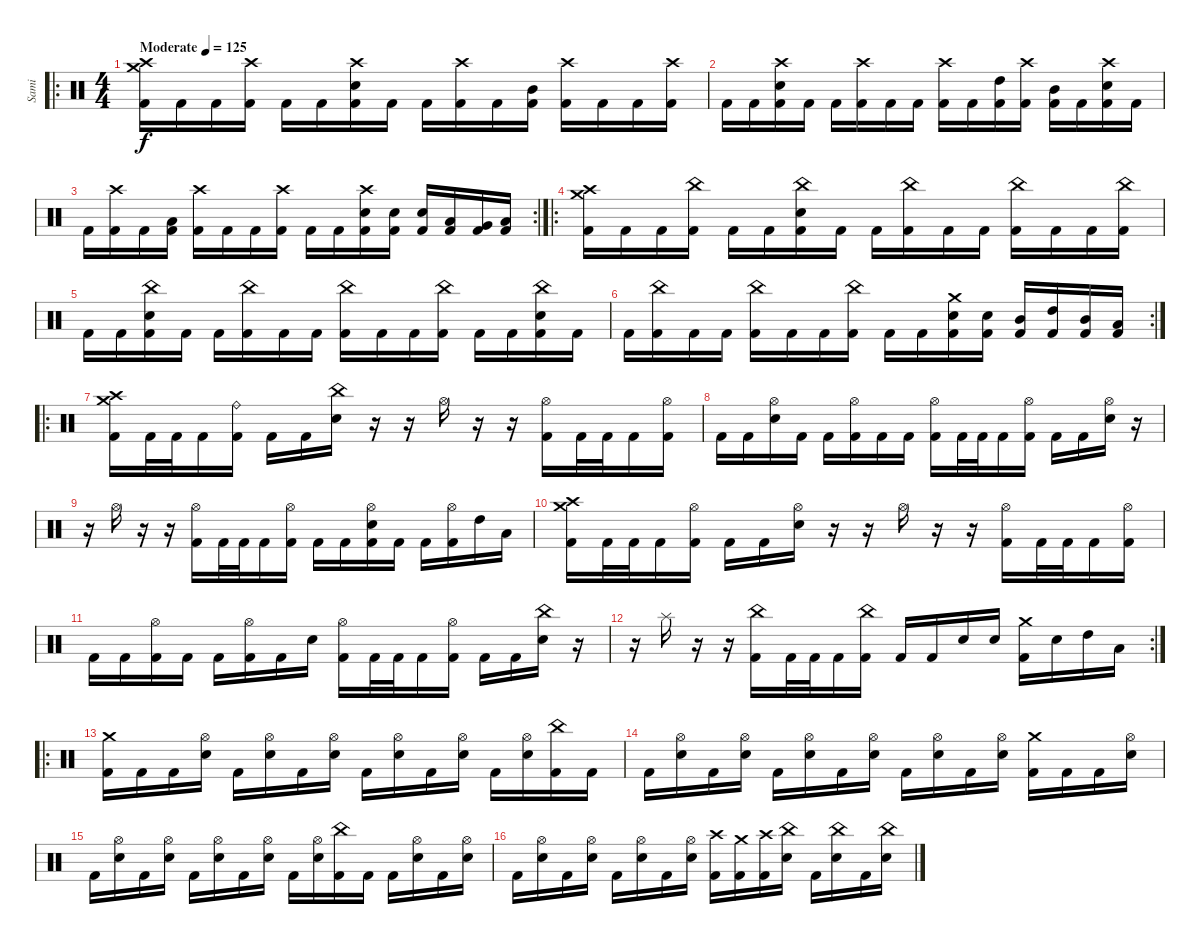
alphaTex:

\track ("Sami" "Sami") {instrument percussion}
\staff {score}
\articulation defaults
\ro
\ts (4 4)
\tempo (125 "Moderate")
\clef neutral
\ks c
("Crash high (hit)" "Crash medium (hit)" "Kick (hit) 2").16{dy f} "Kick (hit) 2".16 "Kick (hit) 2".16 ("Crash high (hit)" "Kick (hit) 2").16 "Kick (hit) 2".16 "Kick (hit) 2".16 ("Crash high (hit)" "Snare (hit) 2" "Kick (hit) 2").16 "Kick (hit) 2".16 "Kick (hit) 2".16 ("Crash high (hit)" "Kick (hit) 2").16 "Kick (hit) 2".16 ("Mid Tom (hit)" "Kick (hit) 2").16 ("Crash high (hit)" "Kick (hit) 2").16 "Kick (hit) 2".16 "Kick (hit) 2".16 ("Crash high (hit)" "Kick (hit) 2").16 |
"Kick (hit) 2".16 "Kick (hit) 2".16 ("Crash high (hit)" "Snare (hit) 2" "Kick (hit) 2").16 "Kick (hit) 2".16 "Kick (hit) 2".16 ("Crash high (hit)" "Kick (hit) 2").16 "Kick (hit) 2".16 "Kick (hit) 2".16 ("Crash high (hit)" "Kick (hit) 2").16 "Kick (hit) 2".16 ("High Tom (hit)" "Kick (hit) 2").16 ("Crash high (hit)" "Kick (hit) 2").16 ("Mid Tom (hit)" "Kick (hit) 2").16 "Kick (hit) 2".16 ("Crash high (hit)" "Snare (hit) 2" "Kick (hit) 2").16 "Kick (hit) 2".16 |
\rc 2 "Kick (hit) 2".16
("Crash high (hit)" "Kick (hit) 2").16 "Kick (hit) 2".16 ("Low Tom (hit)" "Kick (hit) 2").16 ("Crash high (hit)" "Kick (hit) 2").16 "Kick (hit) 2".16 "Kick (hit) 2".16 ("Crash high (hit)" "Kick (hit) 2").16 "Kick (hit) 2".16 "Kick (hit) 2".16 ("Crash high (hit)" "Snare (hit) 2" "Kick (hit) 2").16 ("Snare (hit) 2" "Kick (hit) 2").16 ("Snare (hit) 2" "Kick (hit) 2").16 ("Low Tom (hit)" "Kick (hit) 2").16 ("Very Low Tom (hit)" "Kick (hit) 2").16 ("Low Floor Tom (hit)" "Kick (hit) 2").16 |
\ro
("Crash medium (hit)" "Crash high (hit)" "Kick (hit) 2").16 "Kick (hit) 2".16 "Kick (hit) 2".16 ("China (hit)" "Kick (hit) 2").16 "Kick (hit) 2".16 "Kick (hit) 2".16 ("China (hit)" "Snare (hit) 2" "Kick (hit) 2").16 "Kick (hit) 2".16 "Kick (hit) 2".16 ("China (hit)" "Kick (hit) 2").16 "Kick (hit) 2".16 "Kick (hit) 2".16 ("China (hit)" "Kick (hit) 2").16 "Kick (hit) 2".16 "Kick (hit) 2".16 ("China (hit)" "Kick (hit) 2").16 |
"Kick (hit) 2".16 "Kick (hit) 2".16 ("China (hit)" "Snare (hit) 2" "Kick (hit) 2").16 "Kick (hit) 2".16 "Kick (hit) 2".16 ("China (hit)" "Kick (hit) 2").16 "Kick (hit) 2".16 "Kick (hit) 2".16 ("China (hit)" "Kick (hit) 2").16 "Kick (hit) 2".16 "Kick (hit) 2".16 ("China (hit)" "Kick (hit) 2").16 "Kick (hit) 2".16 "Kick (hit) 2".16 ("China (hit)" "Snare (hit) 2" "Kick (hit) 2").16 "Kick (hit) 2".16 |
\rc 2 "Kick (hit) 2".16
("China (hit)" "Kick (hit) 2").16 "Kick (hit) 2".16 "Kick (hit) 2".16 ("China (hit)" "Kick (hit) 2").16 "Kick (hit) 2".16 "Kick (hit) 2".16 ("China (hit)" "Kick (hit) 2").16 "Kick (hit) 2".16 "Kick (hit) 2".16 ("Crash medium (hit)" "Snare (hit) 2" "Kick (hit) 2").16 ("Snare (hit) 2" "Kick (hit) 2").16 ("Mid Tom (hit)" "Kick (hit) 2").16 ("High Tom (hit)" "Kick (hit) 2").16 ("Mid Tom (hit)" "Kick (hit) 2").16 ("Low Tom (hit)" "Kick (hit) 2").16 |
\ro
("Crash medium (hit)" "Crash high (hit)" "Kick (hit) 2").16 "Kick (hit) 2".32 "Kick (hit) 2".32 "Kick (hit) 2".16 ("Ride (bell)" "Kick (hit) 2").16 "Kick (hit) 2".16 "Kick (hit) 2".16 ("China (hit)" "Snare (hit) 2").16 r.16 r.16 "Hi-Hat (open)".16 r.16 r.16 ("Hi-Hat (open)" "Kick (hit) 2").16 "Kick (hit) 2".32 "Kick (hit) 2".32 "Kick (hit) 2".16 ("Hi-Hat (open)" "Kick (hit) 2").16 |
"Kick (hit) 2".16 "Kick (hit) 2".16 ("Hi-Hat (open)" "Snare (hit) 2").16 "Kick (hit) 2".16 "Kick (hit) 2".16 ("Hi-Hat (open)" "Kick (hit) 2").16 "Kick (hit) 2".16 "Kick (hit) 2".16 ("Hi-Hat (open)" "Kick (hit) 2").16 "Kick (hit) 2".32 "Kick (hit) 2".32 "Kick (hit) 2".16 ("Hi-Hat (open)" "Kick (hit) 2").16 "Kick (hit) 2".16 "Kick (hit) 2".16 ("Hi-Hat (open)" "Snare (hit) 2").16 r.16 |
r.16 "Hi-Hat (open)".16 r.16 r.16 ("Hi-Hat (open)" "Kick (hit) 2").16 "Kick (hit) 2".32 "Kick (hit) 2".32 "Kick (hit) 2".16 ("Hi-Hat (open)" "Kick (hit) 2").16 "Kick (hit) 2".16 "Kick (hit) 2".16 ("Hi-Hat (open)" "Snare (hit) 2" "Kick (hit) 2").16 "Kick (hit) 2".16 "Kick (hit) 2".16 ("Hi-Hat (open)" "Kick (hit) 2").16 "High Tom (hit)".16 "Low Tom (hit)".16 |
("Crash medium (hit)" "Crash high (hit)" "Kick (hit) 2").16 "Kick (hit) 2".32 "Kick (hit) 2".32 "Kick (hit) 2".16 ("Hi-Hat (open)" "Kick (hit) 2").16 "Kick (hit) 2".16 "Kick (hit) 2".16 ("Hi-Hat (open)" "Snare (hit) 2").16 r.16 r.16 "Hi-Hat (open)".16 r.16 r.16 ("Hi-Hat (open)" "Kick (hit) 2").16 "Kick (hit) 2".32 "Kick (hit) 2".32 "Kick (hit) 2".16 ("Hi-Hat (open)" "Kick (hit) 2").16 |
"Kick (hit) 2".16 "Kick (hit) 2".16 ("Hi-Hat (open)" "Kick (hit) 2").16 "Kick (hit) 2".16 "Kick (hit) 2".16 ("Hi-Hat (open)" "Kick (hit) 2").16 "Kick (hit) 2".16 "Snare (hit) 2".16 ("Hi-Hat (open)" "Kick (hit) 2").16 "Kick (hit) 2".32 "Kick (hit) 2".32 "Kick (hit) 2".16 ("Hi-Hat (open)" "Kick (hit) 2").16 "Kick (hit) 2".16 "Kick (hit) 2".16 ("China (hit)" "Snare (hit) 2").16 r.16 |
\rc 2
r.16 "Splash (hit)".16 r.16 r.16 ("China (hit)" "Kick (hit) 2").16 "Kick (hit) 2".32 "Kick (hit) 2".32 "Kick (hit) 2".16 ("China (hit)" "Kick (hit) 2").16 "Kick (hit) 2".16 "Kick (hit) 2".16 "Snare (hit) 2".16 "Snare (hit) 2".16 ("Crash medium (hit)" "Kick (hit) 2").16 "Snare (hit) 2".16 "High Tom (hit)".16 "Low Tom (hit)".16 |
\ro
("Crash medium (hit)" "Kick (hit) 2").16 "Kick (hit) 2".16 "Kick (hit) 2".16 ("Hi-Hat (open)" "Snare (hit) 2").16 "Kick (hit) 2".16 ("Hi-Hat (open)" "Snare (hit) 2").16 "Kick (hit) 2".16 ("Hi-Hat (open)" "Snare (hit) 2").16 "Kick (hit) 2".16 ("Hi-Hat (open)" "Snare (hit) 2").16 "Kick (hit) 2".16 ("Hi-Hat (open)" "Snare (hit) 2").16 "Kick (hit) 2".16 ("Hi-Hat (open)" "Snare (hit) 2").16 ("China (hit)" "Kick (hit) 2").16 "Kick (hit) 2".16 |
"Kick (hit) 2".16 ("Hi-Hat (open)" "Snare (hit) 2").16 "Kick (hit) 2".16 ("Hi-Hat (open)" "Snare (hit) 2").16 "Kick (hit) 2".16 ("Hi-Hat (open)" "Snare (hit) 2").16 "Kick (hit) 2".16 ("Hi-Hat (open)" "Snare (hit) 2").16 "Kick (hit) 2".16 ("Hi-Hat (open)" "Snare (hit) 2").16 "Kick (hit) 2".16 ("Hi-Hat (open)" "Snare (hit) 2").16 ("Crash medium (hit)" "Kick (hit) 2").16 "Kick (hit) 2".16 "Kick (hit) 2".16 ("Hi-Hat (open)" "Snare (hit) 2").16 |
"Kick (hit) 2".16 ("Hi-Hat (open)" "Snare (hit) 2").16 "Kick (hit) 2".16 ("Hi-Hat (open)" "Snare (hit) 2").16 "Kick (hit) 2".16 ("Hi-Hat (open)" "Snare (hit) 2").16 "Kick (hit) 2".16 ("Hi-Hat (open)" "Snare (hit) 2").16 "Kick (hit) 2".16 ("Hi-Hat (open)" "Snare (hit) 2").16 ("China (hit)" "Kick (hit) 2").16 "Kick (hit) 2".16 "Kick (hit) 2".16 ("Hi-Hat (open)" "Snare (hit) 2").16 "Kick (hit) 2".16 ("Hi-Hat (open)" "Snare (hit) 2").16 |
"Kick (hit) 2".16 ("Hi-Hat (open)" "Snare (hit) 2").16 "Kick (hit) 2".16 ("Hi-Hat (open)" "Snare (hit) 2").16 "Kick (hit) 2".16 ("Hi-Hat (open)" "Snare (hit) 2").16 "Kick (hit) 2".16 ("Hi-Hat (open)" "Snare (hit) 2").16 ("Crash high (hit)" "Kick (hit) 2").16 ("Crash medium (hit)" "Kick (hit) 2").16 ("Crash high (hit)" "Kick (hit) 2").16 ("China (hit)" "Snare (hit) 2").16 "Kick (hit) 2".16 ("China (hit)" "Snare (hit) 2").16 "Kick (hit) 2".16 ("China (hit)" "Snare (hit) 2").16
